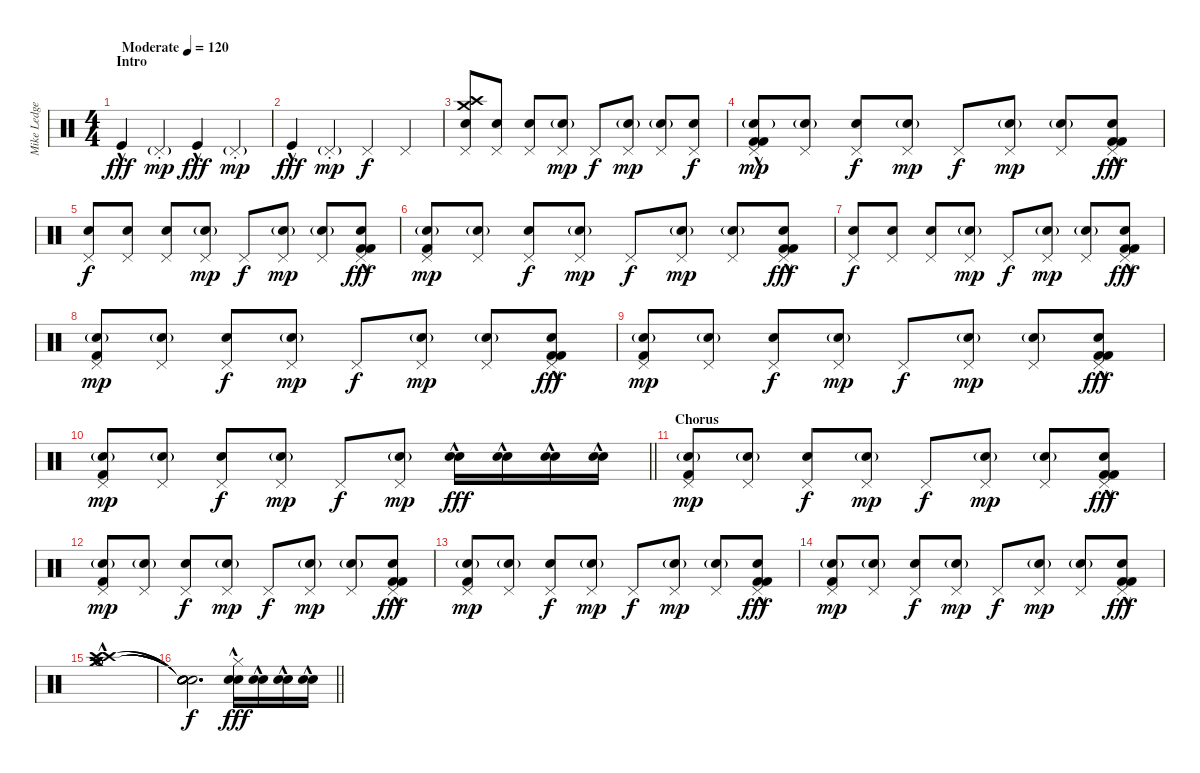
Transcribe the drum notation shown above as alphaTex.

\track ("Mike Ledger - Drums" "Mike Ledge") {instrument percussion}
\staff {score}
\articulation defaults
\ts (4 4)
\section ("" "Intro")
\tempo (120 "Moderate")
\clef neutral
\ks c "Kick (hit)"{hac}.4{dy fff} "Pedal Hi-Hat (hit)"{g st}.4{dy mp} "Kick (hit)"{hac}.4{dy fff} "Pedal Hi-Hat (hit)"{g st}.4{dy mp}
|
"Kick (hit)"{hac}.4{dy fff} "Pedal Hi-Hat (hit)"{g st}.4{dy mp} "Pedal Hi-Hat (hit)".4{dy f} "Pedal Hi-Hat (hit)".4 |
("Pedal Hi-Hat (hit)" "Crash medium (hit)" "Crash high (hit)" "Snare (hit) 2").8 ("Pedal Hi-Hat (hit)" "Snare (hit) 2").8 ("Pedal Hi-Hat (hit)" "Electric Snare (hit)").8 ("Pedal Hi-Hat (hit)" "Snare (hit) 2"{g}).8{dy mp} "Pedal Hi-Hat (hit)".8{dy f} ("Pedal Hi-Hat (hit)" "Snare (hit) 2"{g}).8{dy mp} ("Pedal Hi-Hat (hit)" "Snare (hit) 2"{g}).8 ("Pedal Hi-Hat (hit)" "Electric Snare (hit)").8{dy f} |
("Pedal Hi-Hat (hit)" "Kick (hit) 2"{hac} "Kick (hit) 2"{hac} "Snare (hit) 2"{g}).8{dy mp} ("Pedal Hi-Hat (hit)" "Snare (hit) 2"{g}).8 ("Pedal Hi-Hat (hit)" "Electric Snare (hit)").8{dy f} ("Pedal Hi-Hat (hit)" "Snare (hit) 2"{g}).8{dy mp} "Pedal Hi-Hat (hit)".8{dy f} ("Pedal Hi-Hat (hit)" "Snare (hit) 2"{g}).8{dy mp} ("Pedal Hi-Hat (hit)" "Snare (hit) 2"{g}).8 ("Pedal Hi-Hat (hit)" "Kick (hit) 2"{hac} "Kick (hit) 2"{hac} "Electric Snare (hit)").8{dy fff} |
("Pedal Hi-Hat (hit)" "Snare (hit) 2").8{dy f} ("Pedal Hi-Hat (hit)" "Snare (hit) 2").8 ("Pedal Hi-Hat (hit)" "Electric Snare (hit)").8 ("Pedal Hi-Hat (hit)" "Snare (hit) 2"{g}).8{dy mp} "Pedal Hi-Hat (hit)".8{dy f} ("Pedal Hi-Hat (hit)" "Snare (hit) 2"{g}).8{dy mp} ("Pedal Hi-Hat (hit)" "Snare (hit) 2"{g}).8 ("Pedal Hi-Hat (hit)" "Kick (hit) 2"{hac} "Kick (hit) 2"{hac} "Electric Snare (hit)").8{dy fff} |
("Pedal Hi-Hat (hit)" "Kick (hit) 2" "Snare (hit) 2"{g}).8{dy mp} ("Pedal Hi-Hat (hit)" "Snare (hit) 2"{g}).8 ("Pedal Hi-Hat (hit)" "Electric Snare (hit)").8{dy f} ("Pedal Hi-Hat (hit)" "Snare (hit) 2"{g}).8{dy mp} "Pedal Hi-Hat (hit)".8{dy f} ("Pedal Hi-Hat (hit)" "Snare (hit) 2"{g}).8{dy mp} ("Pedal Hi-Hat (hit)" "Snare (hit) 2"{g}).8 ("Pedal Hi-Hat (hit)" "Kick (hit) 2"{hac} "Kick (hit) 2"{hac} "Electric Snare (hit)").8{dy fff} |
("Pedal Hi-Hat (hit)" "Snare (hit) 2").8{dy f} ("Pedal Hi-Hat (hit)" "Snare (hit) 2").8 ("Pedal Hi-Hat (hit)" "Electric Snare (hit)").8 ("Pedal Hi-Hat (hit)" "Snare (hit) 2"{g}).8{dy mp} "Pedal Hi-Hat (hit)".8{dy f} ("Pedal Hi-Hat (hit)" "Snare (hit) 2"{g}).8{dy mp} ("Pedal Hi-Hat (hit)" "Snare (hit) 2"{g}).8 ("Pedal Hi-Hat (hit)" "Kick (hit) 2"{hac} "Kick (hit) 2"{hac} "Electric Snare (hit)").8{dy fff} |
("Pedal Hi-Hat (hit)" "Kick (hit) 2" "Snare (hit) 2"{g}).8{dy mp} ("Pedal Hi-Hat (hit)" "Snare (hit) 2"{g}).8 ("Pedal Hi-Hat (hit)" "Electric Snare (hit)").8{dy f} ("Pedal Hi-Hat (hit)" "Snare (hit) 2"{g}).8{dy mp} "Pedal Hi-Hat (hit)".8{dy f} ("Pedal Hi-Hat (hit)" "Snare (hit) 2"{g}).8{dy mp} ("Pedal Hi-Hat (hit)" "Snare (hit) 2"{g}).8 ("Pedal Hi-Hat (hit)" "Kick (hit) 2"{hac} "Kick (hit) 2"{hac} "Electric Snare (hit)").8{dy fff} |
("Pedal Hi-Hat (hit)" "Kick (hit) 2" "Snare (hit) 2"{g}).8{dy mp} ("Pedal Hi-Hat (hit)" "Snare (hit) 2"{g}).8 ("Pedal Hi-Hat (hit)" "Electric Snare (hit)").8{dy f} ("Pedal Hi-Hat (hit)" "Snare (hit) 2"{g}).8{dy mp} "Pedal Hi-Hat (hit)".8{dy f} ("Pedal Hi-Hat (hit)" "Snare (hit) 2"{g}).8{dy mp} ("Pedal Hi-Hat (hit)" "Snare (hit) 2"{g}).8 ("Pedal Hi-Hat (hit)" "Kick (hit) 2"{hac} "Kick (hit) 2"{hac} "Electric Snare (hit)").8{dy fff} |
\barLineRight lightlight
("Pedal Hi-Hat (hit)" "Kick (hit) 2" "Snare (hit) 2"{g}).8{dy mp} ("Pedal Hi-Hat (hit)" "Snare (hit) 2"{g}).8 ("Pedal Hi-Hat (hit)" "Electric Snare (hit)").8{dy f} ("Pedal Hi-Hat (hit)" "Snare (hit) 2"{g}).8{dy mp} "Pedal Hi-Hat (hit)".8{dy f} ("Pedal Hi-Hat (hit)" "Snare (hit) 2"{g}).8{dy mp} ("Snare (hit) 2"{hac} "Snare (hit) 2"{hac}).16{dy fff} ("Snare (hit) 2"{hac} "Snare (hit) 2"{hac}).16 ("Snare (hit) 2"{hac} "Snare (hit) 2"{hac}).16 ("Snare (hit) 2"{hac} "Snare (hit) 2"{hac}).16 |
\section ("" "Chorus")
("Pedal Hi-Hat (hit)" "Kick (hit) 2" "Snare (hit) 2"{g}).8{dy mp} ("Pedal Hi-Hat (hit)" "Snare (hit) 2"{g}).8 ("Pedal Hi-Hat (hit)" "Electric Snare (hit)").8{dy f} ("Pedal Hi-Hat (hit)" "Snare (hit) 2"{g}).8{dy mp} "Pedal Hi-Hat (hit)".8{dy f} ("Pedal Hi-Hat (hit)" "Snare (hit) 2"{g}).8{dy mp} ("Pedal Hi-Hat (hit)" "Snare (hit) 2"{g}).8 ("Pedal Hi-Hat (hit)" "Kick (hit) 2"{hac} "Kick (hit) 2"{hac} "Electric Snare (hit)").8{dy fff} |
("Pedal Hi-Hat (hit)" "Kick (hit) 2" "Snare (hit) 2"{g}).8{dy mp} ("Pedal Hi-Hat (hit)" "Snare (hit) 2"{g}).8 ("Pedal Hi-Hat (hit)" "Electric Snare (hit)").8{dy f} ("Pedal Hi-Hat (hit)" "Snare (hit) 2"{g}).8{dy mp} "Pedal Hi-Hat (hit)".8{dy f} ("Pedal Hi-Hat (hit)" "Snare (hit) 2"{g}).8{dy mp} ("Pedal Hi-Hat (hit)" "Snare (hit) 2"{g}).8 ("Pedal Hi-Hat (hit)" "Kick (hit) 2"{hac} "Kick (hit) 2"{hac} "Electric Snare (hit)").8{dy fff} |
("Pedal Hi-Hat (hit)" "Kick (hit) 2" "Snare (hit) 2"{g}).8{dy mp} ("Pedal Hi-Hat (hit)" "Snare (hit) 2"{g}).8 ("Pedal Hi-Hat (hit)" "Electric Snare (hit)").8{dy f} ("Pedal Hi-Hat (hit)" "Snare (hit) 2"{g}).8{dy mp} "Pedal Hi-Hat (hit)".8{dy f} ("Pedal Hi-Hat (hit)" "Snare (hit) 2"{g}).8{dy mp} ("Pedal Hi-Hat (hit)" "Snare (hit) 2"{g}).8 ("Pedal Hi-Hat (hit)" "Kick (hit) 2"{hac} "Kick (hit) 2"{hac} "Electric Snare (hit)").8{dy fff} |
("Pedal Hi-Hat (hit)" "Kick (hit) 2" "Snare (hit) 2"{g}).8{dy mp} ("Pedal Hi-Hat (hit)" "Snare (hit) 2"{g}).8 ("Pedal Hi-Hat (hit)" "Electric Snare (hit)").8{dy f} ("Pedal Hi-Hat (hit)" "Snare (hit) 2"{g}).8{dy mp} "Pedal Hi-Hat (hit)".8{dy f} ("Pedal Hi-Hat (hit)" "Snare (hit) 2"{g}).8{dy mp} ("Pedal Hi-Hat (hit)" "Snare (hit) 2"{g}).8 ("Pedal Hi-Hat (hit)" "Kick (hit) 2"{hac} "Kick (hit) 2"{hac} "Electric Snare (hit)").8{dy fff} |
("Crash high (hit)"{hac} "Crash high (hit)"{hac} "Crash medium (hit)"{hac} "Crash medium (hit)"{hac} "Hi-Hat (open)"{hac} "Hi-Hat (open)"{hac}).1 |
\barLineRight lightlight
("Snare (hit)"{t} "Snare (hit)"{t} "Snare (hit)"{t} "Snare (hit)"{t} "Snare (hit)"{t} "Snare (hit)"{t}).2{d dy f} ("Hi-Hat (closed)" "Snare (hit) 2"{hac} "Snare (hit) 2"{hac}).16{dy fff} ("Snare (hit) 2"{hac} "Snare (hit) 2"{hac}).16 ("Snare (hit) 2"{hac} "Snare (hit) 2"{hac}).16 ("Snare (hit) 2"{hac} "Snare (hit) 2"{hac}).16
